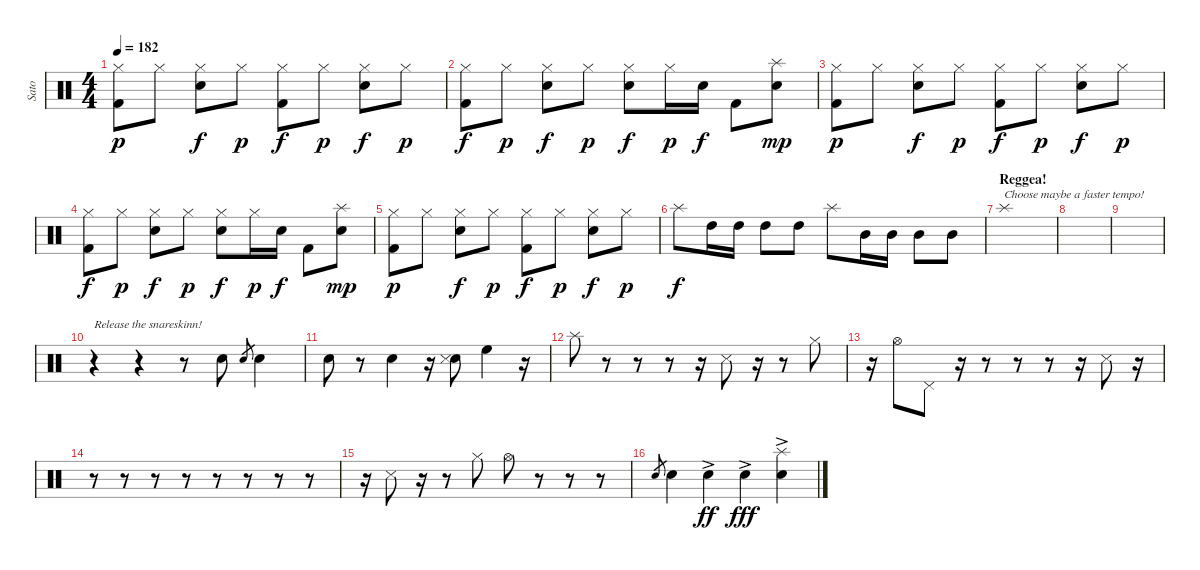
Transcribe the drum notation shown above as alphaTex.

\track ("Sato" "Sato") {instrument percussion}
\staff {score}
\articulation defaults
\ts (4 4)
\tempo 182
\clef neutral
\ks c
("Hi-Hat (closed)" "Kick (hit) 2").8{dy p} "Hi-Hat (closed)".8 ("Hi-Hat (closed)" "Electric Snare (hit)").8{dy f} "Hi-Hat (closed)".8{dy p} ("Hi-Hat (closed)" "Kick (hit) 2").8{dy f} "Hi-Hat (closed)".8{dy p} ("Hi-Hat (closed)" "Electric Snare (hit)").8{dy f} "Hi-Hat (closed)".8{dy p} |
("Hi-Hat (closed)" "Kick (hit) 2").8{dy f} "Hi-Hat (closed)".8{dy p} ("Hi-Hat (closed)" "Electric Snare (hit)").8{dy f} "Hi-Hat (closed)".8{dy p} ("Hi-Hat (closed)" "Electric Snare (hit)").8{dy f} "Hi-Hat (closed)".16{dy p} "Electric Snare (hit)".16{dy f} "Kick (hit) 2".8 ("Splash (hit)" "Electric Snare (hit)").8{dy mp} |
("Hi-Hat (closed)" "Kick (hit) 2").8{dy p} "Hi-Hat (closed)".8 ("Hi-Hat (closed)" "Electric Snare (hit)").8{dy f} "Hi-Hat (closed)".8{dy p} ("Hi-Hat (closed)" "Kick (hit) 2").8{dy f} "Hi-Hat (closed)".8{dy p} ("Hi-Hat (closed)" "Electric Snare (hit)").8{dy f} "Hi-Hat (closed)".8{dy p} |
("Hi-Hat (closed)" "Kick (hit) 2").8{dy f} "Hi-Hat (closed)".8{dy p} ("Hi-Hat (closed)" "Electric Snare (hit)").8{dy f} "Hi-Hat (closed)".8{dy p} ("Hi-Hat (closed)" "Electric Snare (hit)").8{dy f} "Hi-Hat (closed)".16{dy p} "Electric Snare (hit)".16{dy f} "Kick (hit) 2".8 ("Splash (hit)" "Electric Snare (hit)").8{dy mp} |
("Hi-Hat (closed)" "Kick (hit) 2").8{dy p} "Hi-Hat (closed)".8 ("Hi-Hat (closed)" "Electric Snare (hit)").8{dy f} "Hi-Hat (closed)".8{dy p} ("Hi-Hat (closed)" "Kick (hit) 2").8{dy f} "Hi-Hat (closed)".8{dy p} ("Hi-Hat (closed)" "Electric Snare (hit)").8{dy f} "Hi-Hat (closed)".8{dy p} |
"Splash (hit)".8{dy f} "High Tom (hit)".16 "High Tom (hit)".16 "High Tom (hit)".8 "High Tom (hit)".8 "Splash (hit)".8 "Mid Tom (hit)".16 "Mid Tom (hit)".16 "Mid Tom (hit)".8 "Mid Tom (hit)".8 |
\section ("" "Reggea!")
"Splash (hit)".1{txt "Choose maybe a faster tempo!"} |
|
|
r.4{txt "Release the snareskinn!"} r.4 r.8 "Electric Snare (hit)".8 "Electric Snare (hit)".8{gr} "Electric Snare (hit)".4 |
"Electric Snare (hit)".8 r.8 "Electric Snare (hit)".4 r.16 ("Electric Snare (hit)" "Snare (side stick) 3").8 "High Floor Tom (hit)".4 r.16 |
"Splash (hit)".8 r.8 r.8 r.8 r.16 "Snare (side stick) 3".8 r.16 r.8 "Hi-Hat (closed)".8 |
r.16 "Hi-Hat (open)".8 "Pedal Hi-Hat (hit)".8 r.16 r.8 r.8 r.8 r.16 "Snare (side stick) 3".8 r.16 |
r.8 r.8 r.8 r.8 r.8 r.8 r.8 r.8 |
r.16 "Snare (side stick) 3".8 r.16 r.8 "Hi-Hat (closed)".8 "Hi-Hat (open)".8 r.8 r.8 r.8 |
"Electric Snare (hit)".8{gr} "Electric Snare (hit)".4 "Electric Snare (hit)"{ac}.4{dy ff} "Electric Snare (hit)"{ac}.4{dy fff} ("Splash (hit)" "Electric Snare (hit)"{ac}).4
